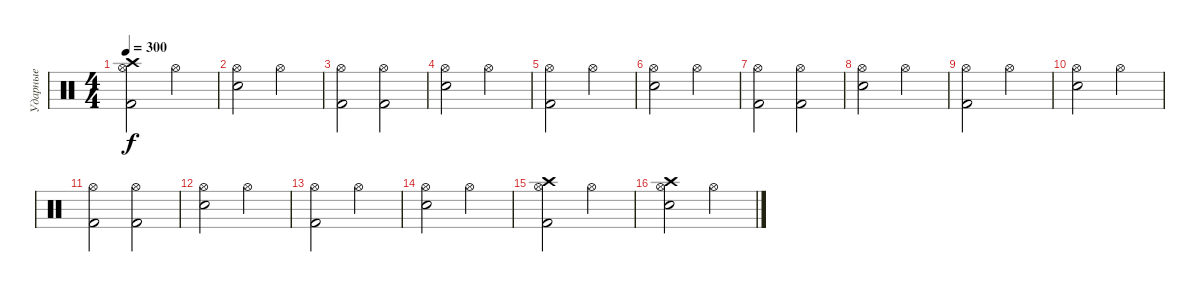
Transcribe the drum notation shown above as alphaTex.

\track ("Ударные" "Ударные") {instrument percussion}
\staff {score}
\articulation defaults
\ts (4 4)
\tempo 300
\clef neutral
\ks c
("Hi-Hat (open)" "Crash high (hit)" "Kick (hit) 2").2{dy f} "Hi-Hat (open)".2 |
("Hi-Hat (open)" "Snare (hit) 2").2 "Hi-Hat (open)".2 |
("Hi-Hat (open)" "Kick (hit) 2").2 ("Hi-Hat (open)" "Kick (hit) 2").2 |
("Hi-Hat (open)" "Snare (hit) 2").2 "Hi-Hat (open)".2 |
("Hi-Hat (open)" "Kick (hit) 2").2 "Hi-Hat (open)".2 |
("Hi-Hat (open)" "Snare (hit) 2").2 "Hi-Hat (open)".2 |
("Hi-Hat (open)" "Kick (hit) 2").2 ("Hi-Hat (open)" "Kick (hit) 2").2 |
("Hi-Hat (open)" "Snare (hit) 2").2 "Hi-Hat (open)".2 |
("Hi-Hat (open)" "Kick (hit) 2").2 "Hi-Hat (open)".2 |
("Hi-Hat (open)" "Snare (hit) 2").2 "Hi-Hat (open)".2 |
("Hi-Hat (open)" "Kick (hit) 2").2 ("Hi-Hat (open)" "Kick (hit) 2").2 |
("Hi-Hat (open)" "Snare (hit) 2").2 "Hi-Hat (open)".2 |
("Hi-Hat (open)" "Kick (hit) 2").2 "Hi-Hat (open)".2 |
("Hi-Hat (open)" "Snare (hit) 2").2 "Hi-Hat (open)".2 |
("Hi-Hat (open)" "Crash high (hit)" "Kick (hit) 2").2 "Hi-Hat (open)".2 |
("Hi-Hat (open)" "Snare (hit) 2" "Crash high (hit)").2 "Hi-Hat (open)".2
